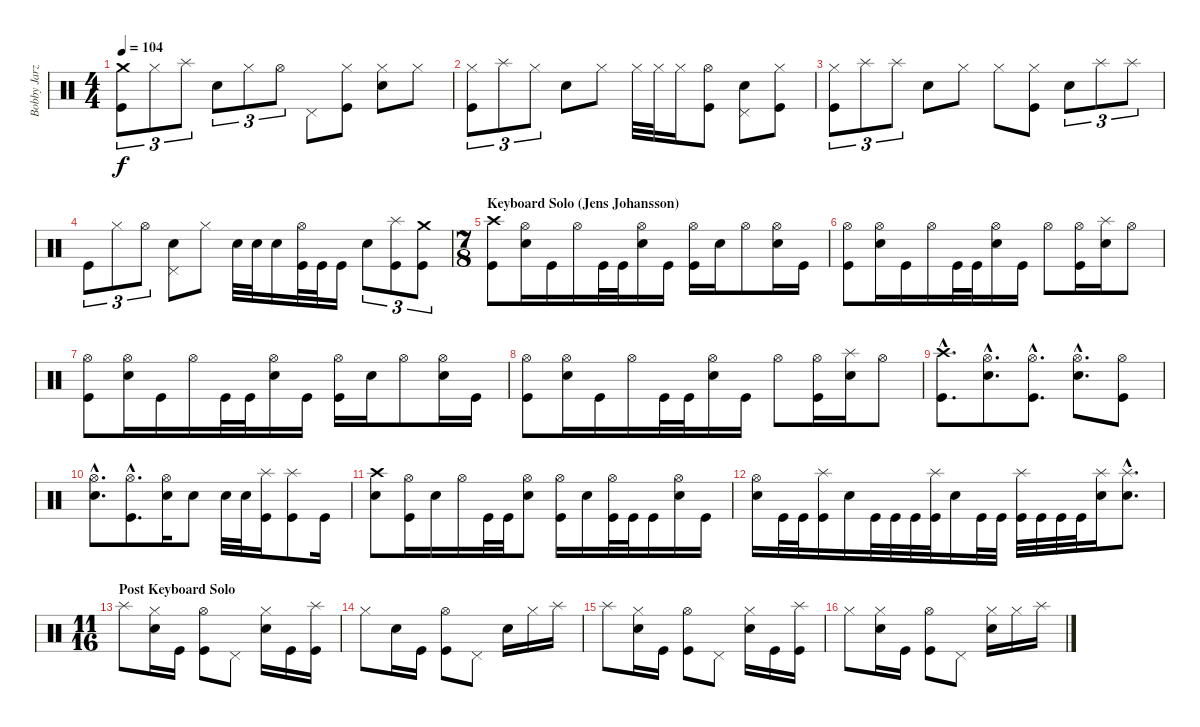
\track ("Bobby Jarzombek" "Bobby Jarz") {instrument percussion}
\staff {score}
\articulation defaults
\ts (4 4)
\tempo 104
\clef neutral
\ks c
("Crash medium (hit)" "Kick (hit)").8{tu (3 2) dy f} "Hi-Hat (closed)".8{tu (3 2)} "Splash (hit)".8{tu (3 2)} "Electric Snare (hit)".8{tu (3 2)} "Hi-Hat (closed)".8{tu (3 2)} "Hi-Hat (open)".8{tu (3 2)} "Pedal Hi-Hat (hit)".8 ("Hi-Hat (closed)" "Kick (hit)").8 ("Hi-Hat (closed)" "Electric Snare (hit)").8 "Hi-Hat (closed)".8 |
("Hi-Hat (closed)" "Kick (hit)").8{tu (3 2)} "Splash (hit)".8{tu (3 2)} "Hi-Hat (closed)".8{tu (3 2)} "Electric Snare (hit)".8 "Hi-Hat (closed)".8 "Hi-Hat (closed)".32 "Hi-Hat (closed)".32 "Hi-Hat (closed)".16 ("Hi-Hat (open)" "Kick (hit)").8 ("Electric Snare (hit)" "Pedal Hi-Hat (hit)").8 ("Hi-Hat (closed)" "Kick (hit)").8 |
("Hi-Hat (closed)" "Kick (hit)").8{tu (3 2)} "Splash (hit)".8{tu (3 2)} "Splash (hit)".8{tu (3 2)} "Electric Snare (hit)".8 "Hi-Hat (closed)".8 "Hi-Hat (closed)".8 ("Hi-Hat (closed)" "Kick (hit)").8 "Electric Snare (hit)".8{tu (3 2)} "Splash (hit)".8{tu (3 2)} "Splash (hit)".8{tu (3 2)} |
"Kick (hit)".8{tu (3 2)} "Hi-Hat (closed)".8{tu (3 2)} "Hi-Hat (open)".8{tu (3 2)} ("Electric Snare (hit)" "Pedal Hi-Hat (hit)").8 "Hi-Hat (closed)".8 "Electric Snare (hit)".32 "Electric Snare (hit)".32 "Electric Snare (hit)".16 ("Hi-Hat (open)" "Kick (hit)").32 "Kick (hit)".32 "Kick (hit)".16 "Electric Snare (hit)".8{tu (3 2)} ("Splash (hit)" "Kick (hit)").8{tu (3 2)} ("Crash medium (hit)" "Kick (hit)").8{tu (3 2)} |
\ts (7 8)
\section ("" "Keyboard Solo (Jens Johansson)")
("Crash high (hit)" "Kick (hit)").8 ("Hi-Hat (open)" "Electric Snare (hit)").16 "Kick (hit)".16 "Hi-Hat (open)".16 "Kick (hit)".32 "Kick (hit)".32 ("Hi-Hat (open)" "Electric Snare (hit)").16 "Kick (hit)".16 ("Hi-Hat (open)" "Kick (hit)").16 "Electric Snare (hit)".16 "Hi-Hat (open)".8 ("Hi-Hat (open)" "Electric Snare (hit)").16 "Kick (hit)".16 |
("Hi-Hat (open)" "Kick (hit)").8 ("Hi-Hat (open)" "Electric Snare (hit)").16 "Kick (hit)".16 "Hi-Hat (open)".16 "Kick (hit)".32 "Kick (hit)".32 ("Hi-Hat (open)" "Electric Snare (hit)").16 "Kick (hit)".16 "Hi-Hat (open)".8 ("Hi-Hat (open)" "Kick (hit)").16 ("Splash (hit)" "Electric Snare (hit)").16 "Hi-Hat (open)".8 |
("Hi-Hat (open)" "Kick (hit)").8 ("Hi-Hat (open)" "Electric Snare (hit)").16 "Kick (hit)".16 "Hi-Hat (open)".16 "Kick (hit)".32 "Kick (hit)".32 ("Hi-Hat (open)" "Electric Snare (hit)").16 "Kick (hit)".16 ("Hi-Hat (open)" "Kick (hit)").16 "Electric Snare (hit)".16 "Hi-Hat (open)".8 ("Hi-Hat (open)" "Electric Snare (hit)").16 "Kick (hit)".16 |
("Hi-Hat (open)" "Kick (hit)").8 ("Hi-Hat (open)" "Electric Snare (hit)").16 "Kick (hit)".16 "Hi-Hat (open)".16 "Kick (hit)".32 "Kick (hit)".32 ("Hi-Hat (open)" "Electric Snare (hit)").16 "Kick (hit)".16 "Hi-Hat (open)".8 ("Hi-Hat (open)" "Kick (hit)").16 ("Splash (hit)" "Electric Snare (hit)").16 "Hi-Hat (open)".8 |
("Crash high (hit)"{hac} "Kick (hit)"{hac}).8{d} ("Hi-Hat (open)"{hac} "Electric Snare (hit)"{hac}).8{d} ("Hi-Hat (open)"{hac} "Kick (hit)"{hac}).8{d} ("Hi-Hat (open)"{hac} "Electric Snare (hit)"{hac}).8{d} ("Hi-Hat (open)" "Kick (hit)").8 |
("Hi-Hat (open)"{hac} "Electric Snare (hit)"{hac}).8{d} ("Hi-Hat (open)"{hac} "Kick (hit)"{hac}).8{d} ("Hi-Hat (open)" "Electric Snare (hit)").16 "Electric Snare (hit)".8 "Electric Snare (hit)".32 "Electric Snare (hit)".32 ("Splash (hit)" "Kick (hit)").16 ("Splash (hit)" "Kick (hit)").8 "Kick (hit)".16 |
("Crash high (hit)" "Electric Snare (hit)").8 ("Hi-Hat (open)" "Kick (hit)").16 "Electric Snare (hit)".16 "Hi-Hat (open)".16 "Kick (hit)".32 "Kick (hit)".32 ("Hi-Hat (open)" "Electric Snare (hit)").8 ("Hi-Hat (open)" "Kick (hit)").16 "Electric Snare (hit)".16 ("Hi-Hat (open)" "Kick (hit)").32 "Kick (hit)".32 "Kick (hit)".16 ("Hi-Hat (open)" "Electric Snare (hit)").16 "Kick (hit)".16 |
("Hi-Hat (open)" "Electric Snare (hit)").16 "Kick (hit)".32 "Kick (hit)".32 ("Splash (hit)" "Kick (hit)").16 "Electric Snare (hit)".16 "Kick (hit)".32 "Kick (hit)".32 "Kick (hit)".32 ("Splash (hit)" "Kick (hit)").32 "Electric Snare (hit)".16 "Kick (hit)".32 "Kick (hit)".32 ("Splash (hit)" "Kick (hit)").32 "Kick (hit)".32 "Kick (hit)".32 "Kick (hit)".32 ("Splash (hit)" "Electric Snare (hit)").16 ("Splash (hit)"{hac} "Electric Snare (hit)"{hac}).8{d} |
\ts (11 16)
\section ("" "Post Keyboard Solo")
"Splash (hit)".8 ("Hi-Hat (closed)" "Electric Snare (hit)").16 "Kick (hit)".16 ("Hi-Hat (open)" "Kick (hit)").8 "Pedal Hi-Hat (hit)".8 ("Hi-Hat (closed)" "Electric Snare (hit)").16 "Kick (hit)".16 ("Splash (hit)" "Kick (hit)").16 |
"Hi-Hat (closed)".8 "Electric Snare (hit)".16 "Kick (hit)".16 ("Hi-Hat (open)" "Kick (hit)").8 "Pedal Hi-Hat (hit)".8 "Electric Snare (hit)".16 "Hi-Hat (closed)".16 "Splash (hit)".16 |
"Splash (hit)".8 ("Hi-Hat (closed)" "Electric Snare (hit)").16 "Kick (hit)".16 ("Hi-Hat (open)" "Kick (hit)").8 "Pedal Hi-Hat (hit)".8 ("Hi-Hat (closed)" "Electric Snare (hit)").16 "Kick (hit)".16 ("Splash (hit)" "Kick (hit)").16 |
"Hi-Hat (closed)".8 ("Hi-Hat (closed)" "Electric Snare (hit)").16 "Kick (hit)".16 ("Hi-Hat (open)" "Kick (hit)").8 "Pedal Hi-Hat (hit)".8 ("Hi-Hat (closed)" "Electric Snare (hit)").16 "Hi-Hat (closed)".16 "Splash (hit)".16
